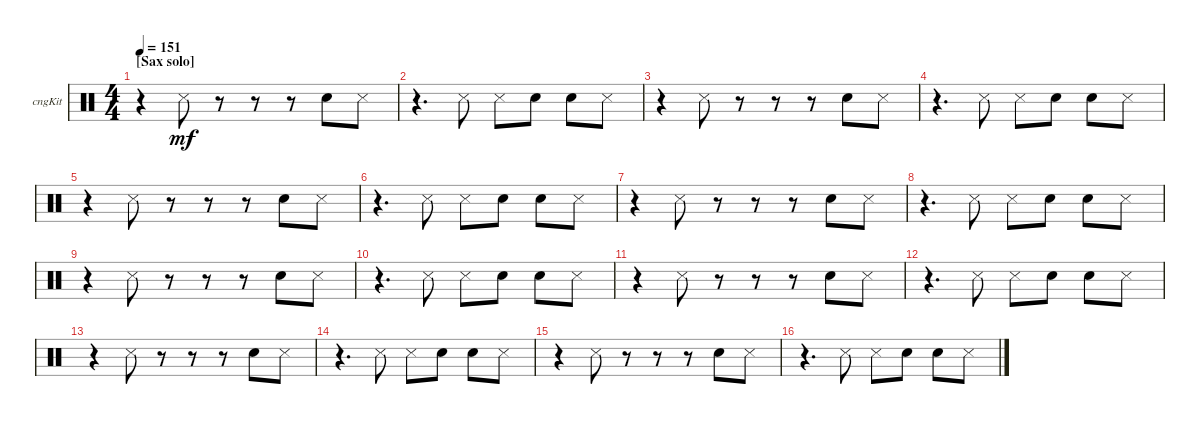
\bracketExtendMode groupsimilarinstruments
\firstSystemTrackNameOrientation horizontal
\otherSystemsTrackNameOrientation horizontal
\track ("Congas" "cngKit") {instrument percussion}
\staff {score}
\articulation defaults
\ts (4 4)
\section ("" "[Sax solo]")
\tempo 151
\clef neutral
\ks aminor
r.4{dy mf} "Snare (side stick) 3".8 r.8 r.8 r.8 "Snare (hit) 2".8 "Snare (side stick) 3".8 |
r.4{d} "Snare (side stick) 3".8 "Snare (side stick) 3".8 "Snare (hit) 2".8 "Snare (hit) 2".8 "Snare (side stick) 3".8 |
r.4 "Snare (side stick) 3".8 r.8 r.8 r.8 "Snare (hit) 2".8 "Snare (side stick) 3".8 |
r.4{d} "Snare (side stick) 3".8 "Snare (side stick) 3".8 "Snare (hit) 2".8 "Snare (hit) 2".8 "Snare (side stick) 3".8 |
r.4 "Snare (side stick) 3".8 r.8 r.8 r.8 "Snare (hit) 2".8 "Snare (side stick) 3".8 |
r.4{d} "Snare (side stick) 3".8 "Snare (side stick) 3".8 "Snare (hit) 2".8 "Snare (hit) 2".8 "Snare (side stick) 3".8 |
r.4 "Snare (side stick) 3".8 r.8 r.8 r.8 "Snare (hit) 2".8 "Snare (side stick) 3".8 |
r.4{d} "Snare (side stick) 3".8 "Snare (side stick) 3".8 "Snare (hit) 2".8 "Snare (hit) 2".8 "Snare (side stick) 3".8 |
r.4 "Snare (side stick) 3".8 r.8 r.8 r.8 "Snare (hit) 2".8 "Snare (side stick) 3".8 |
r.4{d} "Snare (side stick) 3".8 "Snare (side stick) 3".8 "Snare (hit) 2".8 "Snare (hit) 2".8 "Snare (side stick) 3".8 |
r.4 "Snare (side stick) 3".8 r.8 r.8 r.8 "Snare (hit) 2".8 "Snare (side stick) 3".8 |
r.4{d} "Snare (side stick) 3".8 "Snare (side stick) 3".8 "Snare (hit) 2".8 "Snare (hit) 2".8 "Snare (side stick) 3".8 |
r.4 "Snare (side stick) 3".8 r.8 r.8 r.8 "Snare (hit) 2".8 "Snare (side stick) 3".8 |
r.4{d} "Snare (side stick) 3".8 "Snare (side stick) 3".8 "Snare (hit) 2".8 "Snare (hit) 2".8 "Snare (side stick) 3".8 |
r.4 "Snare (side stick) 3".8 r.8 r.8 r.8 "Snare (hit) 2".8 "Snare (side stick) 3".8 |
r.4{d} "Snare (side stick) 3".8 "Snare (side stick) 3".8 "Snare (hit) 2".8 "Snare (hit) 2".8 "Snare (side stick) 3".8
